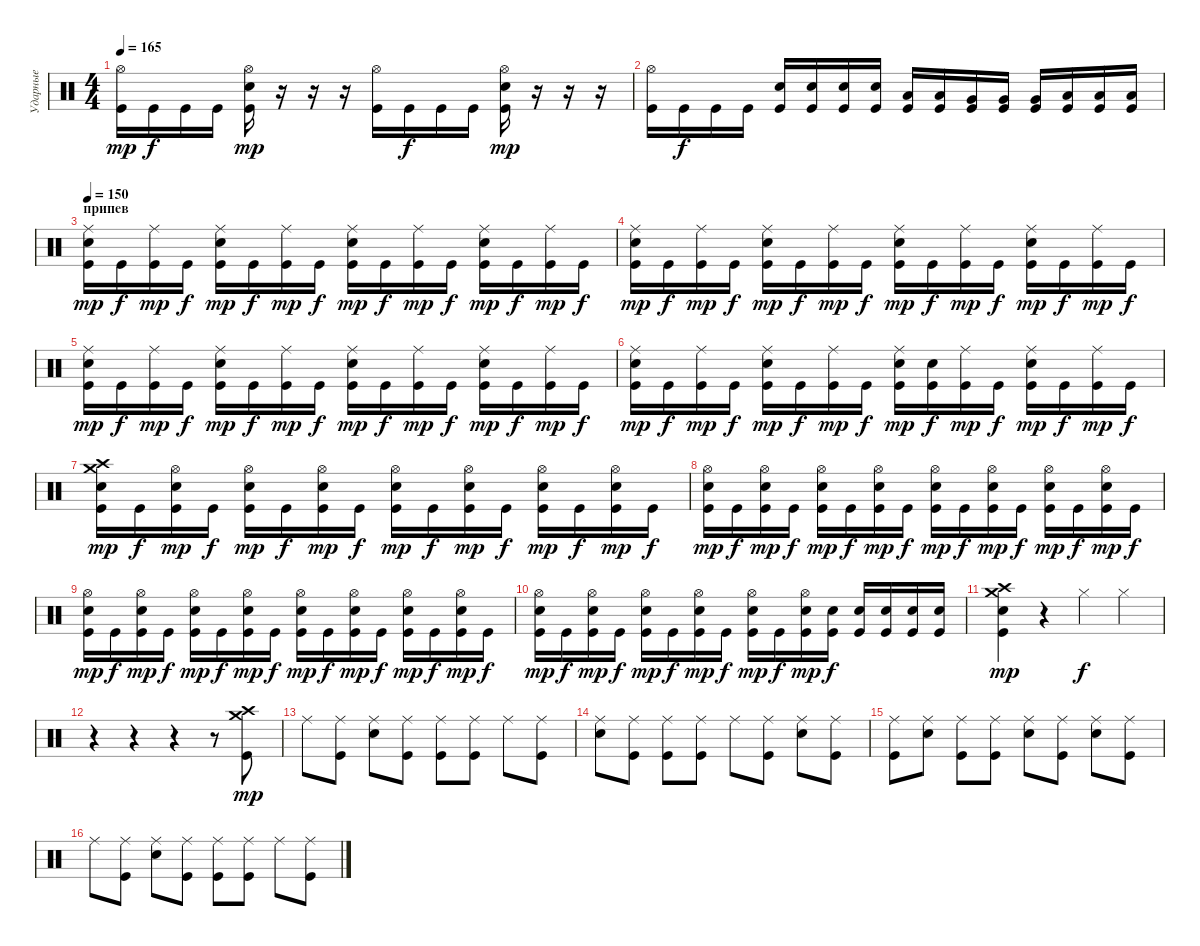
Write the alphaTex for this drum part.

\track ("Ударные" "Ударные") {instrument percussion}
\staff {score}
\articulation defaults
\ts (4 4)
\tempo 165
\clef neutral
\ks c
("Hi-Hat (open)" "Kick (hit)").16{dy mp} "Kick (hit)".16{dy f} "Kick (hit)".16 "Kick (hit)".16 ("Hi-Hat (open)" "Electric Snare (hit)" "Kick (hit)").16{dy mp} r.16 r.16 r.16 ("Hi-Hat (open)" "Kick (hit)").16 "Kick (hit)".16{dy f} "Kick (hit)".16 "Kick (hit)".16 ("Hi-Hat (open)" "Electric Snare (hit)" "Kick (hit)").16{dy mp} r.16 r.16 r.16 |
("Hi-Hat (open)" "Kick (hit)").16 "Kick (hit)".16{dy f} "Kick (hit)".16 "Kick (hit)".16 ("Electric Snare (hit)" "Kick (hit)").16 ("Electric Snare (hit)" "Kick (hit)").16 ("Electric Snare (hit)" "Kick (hit)").16 ("Electric Snare (hit)" "Kick (hit)").16 ("Low Tom (hit)" "Kick (hit)").16 ("Low Tom (hit)" "Kick (hit)").16 ("Very Low Tom (hit)" "Kick (hit)").16 ("Very Low Tom (hit)" "Kick (hit)").16 ("Very Low Tom (hit)" "Kick (hit)").16 ("Low Floor Tom (hit)" "Kick (hit)").16 ("Low Floor Tom (hit)" "Kick (hit)").16 ("Low Floor Tom (hit)" "Kick (hit)").16 |
\section ("" "припев")
\tempo 150
("Ride (middle)" "Electric Snare (hit)" "Kick (hit)").16{dy mp} "Kick (hit)".16{dy f} ("Ride (middle)" "Kick (hit)").16{dy mp} "Kick (hit)".16{dy f} ("Ride (middle)" "Electric Snare (hit)" "Kick (hit)").16{dy mp} "Kick (hit)".16{dy f} ("Ride (middle)" "Kick (hit)").16{dy mp} "Kick (hit)".16{dy f} ("Ride (middle)" "Electric Snare (hit)" "Kick (hit)").16{dy mp} "Kick (hit)".16{dy f} ("Ride (middle)" "Kick (hit)").16{dy mp} "Kick (hit)".16{dy f} ("Ride (middle)" "Electric Snare (hit)" "Kick (hit)").16{dy mp} "Kick (hit)".16{dy f} ("Ride (middle)" "Kick (hit)").16{dy mp} "Kick (hit)".16{dy f} |
("Ride (middle)" "Electric Snare (hit)" "Kick (hit)").16{dy mp} "Kick (hit)".16{dy f} ("Ride (middle)" "Kick (hit)").16{dy mp} "Kick (hit)".16{dy f} ("Ride (middle)" "Electric Snare (hit)" "Kick (hit)").16{dy mp} "Kick (hit)".16{dy f} ("Ride (middle)" "Kick (hit)").16{dy mp} "Kick (hit)".16{dy f} ("Ride (middle)" "Electric Snare (hit)" "Kick (hit)").16{dy mp} "Kick (hit)".16{dy f} ("Ride (middle)" "Kick (hit)").16{dy mp} "Kick (hit)".16{dy f} ("Ride (middle)" "Electric Snare (hit)" "Kick (hit)").16{dy mp} "Kick (hit)".16{dy f} ("Ride (middle)" "Kick (hit)").16{dy mp} "Kick (hit)".16{dy f} |
("Ride (middle)" "Electric Snare (hit)" "Kick (hit)").16{dy mp} "Kick (hit)".16{dy f} ("Ride (middle)" "Kick (hit)").16{dy mp} "Kick (hit)".16{dy f} ("Ride (middle)" "Electric Snare (hit)" "Kick (hit)").16{dy mp} "Kick (hit)".16{dy f} ("Ride (middle)" "Kick (hit)").16{dy mp} "Kick (hit)".16{dy f} ("Ride (middle)" "Electric Snare (hit)" "Kick (hit)").16{dy mp} "Kick (hit)".16{dy f} ("Ride (middle)" "Kick (hit)").16{dy mp} "Kick (hit)".16{dy f} ("Ride (middle)" "Electric Snare (hit)" "Kick (hit)").16{dy mp} "Kick (hit)".16{dy f} ("Ride (middle)" "Kick (hit)").16{dy mp} "Kick (hit)".16{dy f} |
("Ride (middle)" "Electric Snare (hit)" "Kick (hit)").16{dy mp} "Kick (hit)".16{dy f} ("Ride (middle)" "Kick (hit)").16{dy mp} "Kick (hit)".16{dy f} ("Ride (middle)" "Electric Snare (hit)" "Kick (hit)").16{dy mp} "Kick (hit)".16{dy f} ("Ride (middle)" "Kick (hit)").16{dy mp} "Kick (hit)".16{dy f} ("Ride (middle)" "Electric Snare (hit)" "Kick (hit)").16{dy mp} ("Electric Snare (hit)" "Kick (hit)").16{dy f} ("Ride (middle)" "Kick (hit)").16{dy mp} "Kick (hit)".16{dy f} ("Ride (middle)" "Electric Snare (hit)" "Kick (hit)").16{dy mp} "Kick (hit)".16{dy f} ("Ride (middle)" "Kick (hit)").16{dy mp} "Kick (hit)".16{dy f} |
("Crash medium (hit)" "Crash high (hit)" "Electric Snare (hit)" "Kick (hit)").16{dy mp} "Kick (hit)".16{dy f} ("Hi-Hat (open)" "Electric Snare (hit)" "Kick (hit)").16{dy mp} "Kick (hit)".16{dy f} ("Hi-Hat (open)" "Electric Snare (hit)" "Kick (hit)").16{dy mp} "Kick (hit)".16{dy f} ("Hi-Hat (open)" "Electric Snare (hit)" "Kick (hit)").16{dy mp} "Kick (hit)".16{dy f} ("Hi-Hat (open)" "Electric Snare (hit)" "Kick (hit)").16{dy mp} "Kick (hit)".16{dy f} ("Hi-Hat (open)" "Electric Snare (hit)" "Kick (hit)").16{dy mp} "Kick (hit)".16{dy f} ("Hi-Hat (open)" "Electric Snare (hit)" "Kick (hit)").16{dy mp} "Kick (hit)".16{dy f} ("Hi-Hat (open)" "Electric Snare (hit)" "Kick (hit)").16{dy mp} "Kick (hit)".16{dy f} |
("Hi-Hat (open)" "Electric Snare (hit)" "Kick (hit)").16{dy mp} "Kick (hit)".16{dy f} ("Hi-Hat (open)" "Electric Snare (hit)" "Kick (hit)").16{dy mp} "Kick (hit)".16{dy f} ("Hi-Hat (open)" "Electric Snare (hit)" "Kick (hit)").16{dy mp} "Kick (hit)".16{dy f} ("Hi-Hat (open)" "Electric Snare (hit)" "Kick (hit)").16{dy mp} "Kick (hit)".16{dy f} ("Hi-Hat (open)" "Electric Snare (hit)" "Kick (hit)").16{dy mp} "Kick (hit)".16{dy f} ("Hi-Hat (open)" "Electric Snare (hit)" "Kick (hit)").16{dy mp} "Kick (hit)".16{dy f} ("Hi-Hat (open)" "Electric Snare (hit)" "Kick (hit)").16{dy mp} "Kick (hit)".16{dy f} ("Hi-Hat (open)" "Electric Snare (hit)" "Kick (hit)").16{dy mp} "Kick (hit)".16{dy f} |
("Hi-Hat (open)" "Electric Snare (hit)" "Kick (hit)").16{dy mp} "Kick (hit)".16{dy f} ("Hi-Hat (open)" "Electric Snare (hit)" "Kick (hit)").16{dy mp} "Kick (hit)".16{dy f} ("Hi-Hat (open)" "Electric Snare (hit)" "Kick (hit)").16{dy mp} "Kick (hit)".16{dy f} ("Hi-Hat (open)" "Electric Snare (hit)" "Kick (hit)").16{dy mp} "Kick (hit)".16{dy f} ("Hi-Hat (open)" "Electric Snare (hit)" "Kick (hit)").16{dy mp} "Kick (hit)".16{dy f} ("Hi-Hat (open)" "Electric Snare (hit)" "Kick (hit)").16{dy mp} "Kick (hit)".16{dy f} ("Hi-Hat (open)" "Electric Snare (hit)" "Kick (hit)").16{dy mp} "Kick (hit)".16{dy f} ("Hi-Hat (open)" "Electric Snare (hit)" "Kick (hit)").16{dy mp} "Kick (hit)".16{dy f} |
("Hi-Hat (open)" "Electric Snare (hit)" "Kick (hit)").16{dy mp} "Kick (hit)".16{dy f} ("Hi-Hat (open)" "Electric Snare (hit)" "Kick (hit)").16{dy mp} "Kick (hit)".16{dy f} ("Hi-Hat (open)" "Electric Snare (hit)" "Kick (hit)").16{dy mp} "Kick (hit)".16{dy f} ("Hi-Hat (open)" "Electric Snare (hit)" "Kick (hit)").16{dy mp} "Kick (hit)".16{dy f} ("Hi-Hat (open)" "Electric Snare (hit)" "Kick (hit)").16{dy mp} "Kick (hit)".16{dy f} ("Hi-Hat (open)" "Electric Snare (hit)" "Kick (hit)").16{dy mp} ("Electric Snare (hit)" "Kick (hit)").16{dy f} ("Electric Snare (hit)" "Kick (hit)").16 ("Electric Snare (hit)" "Kick (hit)").16 ("Electric Snare (hit)" "Kick (hit)").16 ("Electric Snare (hit)" "Kick (hit)").16 |
("Crash medium (hit)" "Crash high (hit)" "Electric Snare (hit)" "Kick (hit)").4{dy mp} r.4 "Hi-Hat (closed)".4{dy f} "Hi-Hat (closed)".4 |
r.4 r.4 r.4 r.8 ("Crash medium (hit)" "Crash high (hit)" "Kick (hit)").8{dy mp} |
"Ride (middle)".8 ("Ride (middle)" "Kick (hit)").8 ("Ride (middle)" "Electric Snare (hit)").8 ("Ride (middle)" "Kick (hit)").8 ("Ride (middle)" "Kick (hit)").8 ("Ride (middle)" "Kick (hit)").8 "Ride (middle)".8 ("Ride (middle)" "Kick (hit)").8 |
("Ride (middle)" "Electric Snare (hit)").8 ("Ride (middle)" "Kick (hit)").8 ("Ride (middle)" "Kick (hit)").8 ("Ride (middle)" "Kick (hit)").8 "Ride (middle)".8 ("Ride (middle)" "Kick (hit)").8 ("Ride (middle)" "Electric Snare (hit)").8 ("Ride (middle)" "Kick (hit)").8 |
("Ride (middle)" "Kick (hit)").8 ("Ride (middle)" "Electric Snare (hit)").8 ("Ride (middle)" "Kick (hit)").8 ("Ride (middle)" "Kick (hit)").8 ("Ride (middle)" "Electric Snare (hit)").8 ("Ride (middle)" "Kick (hit)").8 ("Ride (middle)" "Electric Snare (hit)").8 ("Ride (middle)" "Kick (hit)").8 |
"Ride (middle)".8 ("Ride (middle)" "Kick (hit)").8 ("Ride (middle)" "Electric Snare (hit)").8 ("Ride (middle)" "Kick (hit)").8 ("Ride (middle)" "Kick (hit)").8 ("Ride (middle)" "Kick (hit)").8 "Ride (middle)".8 ("Ride (middle)" "Kick (hit)").8
